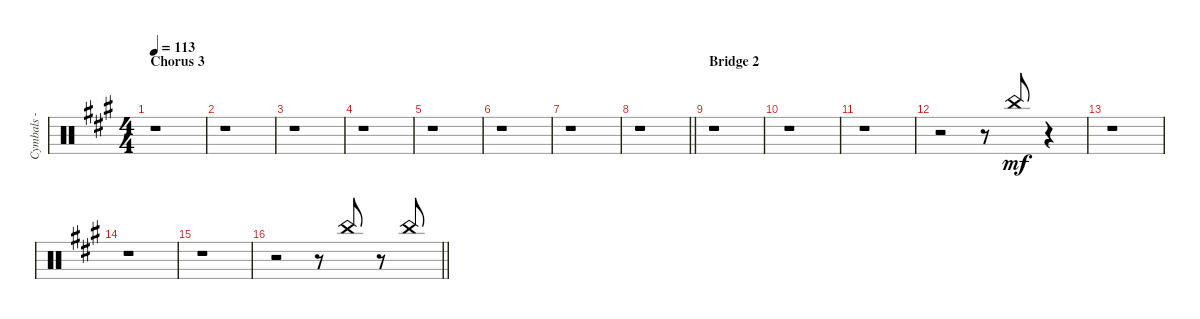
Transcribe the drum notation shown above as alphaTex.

\track ("Cymbals - china" "Cymbals - ") {instrument percussion}
\staff {score}
\articulation defaults
\ts (4 4)
\section ("" "Chorus 3")
\tempo 113
\clef neutral
\ks f#minor
r.1{dy mf} |
r.1 |
r.1 |
r.1 |
r.1 |
r.1 |
r.1 |
\barLineRight lightlight
r.1 |
\section ("" "Bridge 2")
r.1 |
r.1 |
r.1 |
r.2 r.8 "China (hit)".8{beam Up} r.4 |
r.1 |
r.1 |
r.1 |
\barLineRight lightlight
r.2 r.8 "China (hit)".8{beam Up} r.8 "China (hit)".8{beam Up}
